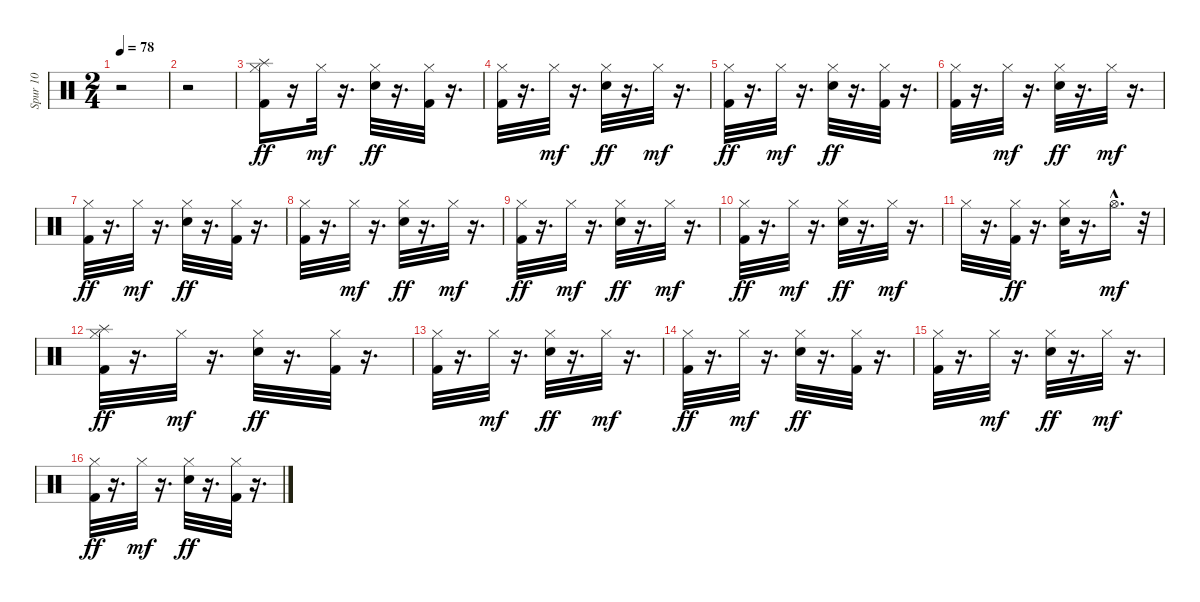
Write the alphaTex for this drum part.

\track ("Spur 10" "Spur 10") {instrument percussion}
\staff {score}
\articulation defaults
\ts (2 4)
\tempo 78
\clef neutral
\ks c
r.2{dy ff} |
r.2 |
("Hi-Hat (closed)" "Splash (hit)" "Kick (hit) 2").16 r.16 "Hi-Hat (closed)".32{dy mf} r.16{d} ("Hi-Hat (closed)" "Snare (hit) 2").32{dy ff} r.16{d} ("Hi-Hat (closed)" "Kick (hit) 2").32 r.16{d} |
("Hi-Hat (closed)" "Kick (hit) 2").32 r.16{d} "Hi-Hat (closed)".32{dy mf} r.16{d} ("Hi-Hat (closed)" "Snare (hit) 2").32{dy ff} r.16{d} "Hi-Hat (closed)".32{dy mf} r.16{d} |
("Hi-Hat (closed)" "Kick (hit) 2").32{dy ff} r.16{d} "Hi-Hat (closed)".32{dy mf} r.16{d} ("Hi-Hat (closed)" "Snare (hit) 2").32{dy ff} r.16{d} ("Hi-Hat (closed)" "Kick (hit) 2").32 r.16{d} |
("Hi-Hat (closed)" "Kick (hit) 2").32 r.16{d} "Hi-Hat (closed)".32{dy mf} r.16{d} ("Hi-Hat (closed)" "Snare (hit) 2").32{dy ff} r.16{d} "Hi-Hat (closed)".32{dy mf} r.16{d} |
("Hi-Hat (closed)" "Kick (hit) 2").32{dy ff} r.16{d} "Hi-Hat (closed)".32{dy mf} r.16{d} ("Hi-Hat (closed)" "Snare (hit) 2").32{dy ff} r.16{d} ("Hi-Hat (closed)" "Kick (hit) 2").32 r.16{d} |
("Hi-Hat (closed)" "Kick (hit) 2").32 r.16{d} "Hi-Hat (closed)".32{dy mf} r.16{d} ("Hi-Hat (closed)" "Snare (hit) 2").32{dy ff} r.16{d} "Hi-Hat (closed)".32{dy mf} r.16{d} |
("Hi-Hat (closed)" "Kick (hit) 2").32{dy ff} r.16{d} "Hi-Hat (closed)".32{dy mf} r.16{d} ("Hi-Hat (closed)" "Snare (hit) 2").32{dy ff} r.16{d} "Hi-Hat (closed)".32{dy mf} r.16{d} |
("Hi-Hat (closed)" "Kick (hit) 2").32{dy ff} r.16{d} "Hi-Hat (closed)".32{dy mf} r.16{d} ("Hi-Hat (closed)" "Snare (hit) 2").32{dy ff} r.16{d} "Hi-Hat (closed)".32{dy mf} r.16{d} |
"Hi-Hat (closed)".32 r.16{d} ("Hi-Hat (closed)" "Kick (hit) 2").32{dy ff} r.16{d} ("Hi-Hat (closed)" "Snare (hit) 2").32 r.16{d} "Hi-Hat (open)"{hac}.16{d dy mf} r.32 |
("Hi-Hat (closed)" "Splash (hit)" "Kick (hit) 2").32{dy ff} r.16{d} "Hi-Hat (closed)".32{dy mf} r.16{d} ("Hi-Hat (closed)" "Snare (hit) 2").32{dy ff} r.16{d} ("Hi-Hat (closed)" "Kick (hit) 2").32 r.16{d} |
("Hi-Hat (closed)" "Kick (hit) 2").32 r.16{d} "Hi-Hat (closed)".32{dy mf} r.16{d} ("Hi-Hat (closed)" "Snare (hit) 2").32{dy ff} r.16{d} "Hi-Hat (closed)".32{dy mf} r.16{d} |
("Hi-Hat (closed)" "Kick (hit) 2").32{dy ff} r.16{d} "Hi-Hat (closed)".32{dy mf} r.16{d} ("Hi-Hat (closed)" "Snare (hit) 2").32{dy ff} r.16{d} ("Hi-Hat (closed)" "Kick (hit) 2").32 r.16{d} |
("Hi-Hat (closed)" "Kick (hit) 2").32 r.16{d} "Hi-Hat (closed)".32{dy mf} r.16{d} ("Hi-Hat (closed)" "Snare (hit) 2").32{dy ff} r.16{d} "Hi-Hat (closed)".32{dy mf} r.16{d} |
("Hi-Hat (closed)" "Kick (hit) 2").32{dy ff} r.16{d} "Hi-Hat (closed)".32{dy mf} r.16{d} ("Hi-Hat (closed)" "Snare (hit) 2").32{dy ff} r.16{d} ("Hi-Hat (closed)" "Kick (hit) 2").32 r.16{d}
